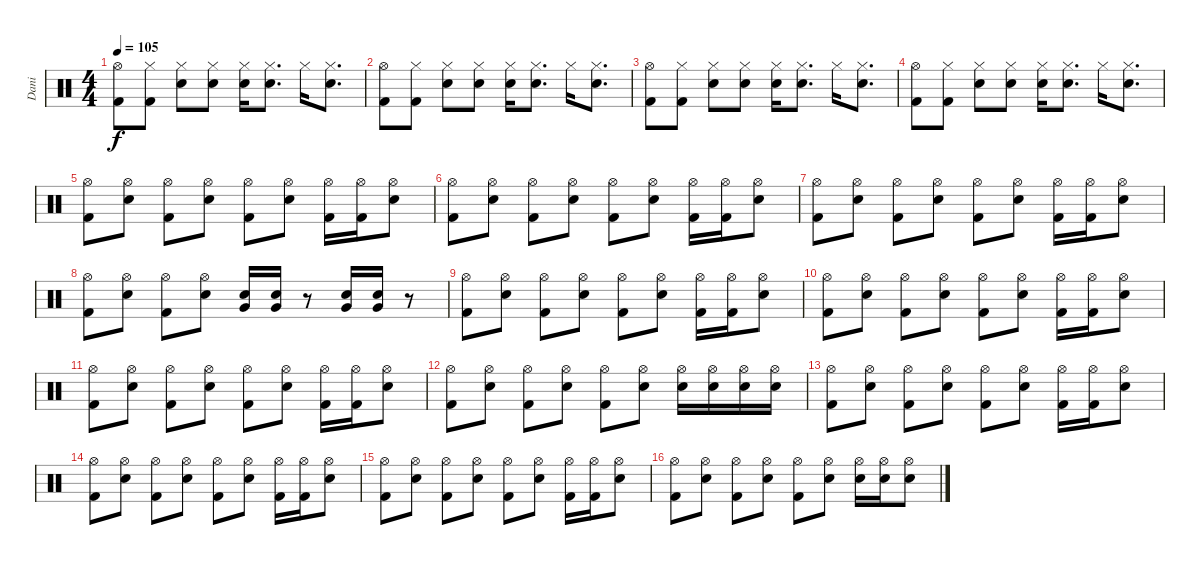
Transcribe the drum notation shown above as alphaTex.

\track ("Dani" "Dani") {instrument percussion}
\staff {score}
\articulation defaults
\ts (4 4)
\tempo 105
\clef neutral
\ks c
("Kick (hit) 2" "Hi-Hat (open)").8{dy f} ("Kick (hit) 2" "Hi-Hat (closed)").8 ("Snare (hit) 2" "Hi-Hat (closed)").8 ("Snare (hit) 2" "Hi-Hat (closed)").8 ("Snare (hit) 2" "Hi-Hat (closed)").16 ("Snare (hit) 2" "Hi-Hat (closed)").8{d} "Hi-Hat (closed)".16 ("Snare (hit) 2" "Hi-Hat (closed)").8{d} |
("Kick (hit) 2" "Hi-Hat (open)").8 ("Kick (hit) 2" "Hi-Hat (closed)").8 ("Snare (hit) 2" "Hi-Hat (closed)").8 ("Snare (hit) 2" "Hi-Hat (closed)").8 ("Snare (hit) 2" "Hi-Hat (closed)").16 ("Snare (hit) 2" "Hi-Hat (closed)").8{d} "Hi-Hat (closed)".16 ("Snare (hit) 2" "Hi-Hat (closed)").8{d} |
("Kick (hit) 2" "Hi-Hat (open)").8 ("Kick (hit) 2" "Hi-Hat (closed)").8 ("Snare (hit) 2" "Hi-Hat (closed)").8 ("Snare (hit) 2" "Hi-Hat (closed)").8 ("Snare (hit) 2" "Hi-Hat (closed)").16 ("Snare (hit) 2" "Hi-Hat (closed)").8{d} "Hi-Hat (closed)".16 ("Snare (hit) 2" "Hi-Hat (closed)").8{d} |
("Kick (hit) 2" "Hi-Hat (open)").8 ("Kick (hit) 2" "Hi-Hat (closed)").8 ("Snare (hit) 2" "Hi-Hat (closed)").8 ("Snare (hit) 2" "Hi-Hat (closed)").8 ("Snare (hit) 2" "Hi-Hat (closed)").16 ("Snare (hit) 2" "Hi-Hat (closed)").8{d} "Hi-Hat (closed)".16 ("Snare (hit) 2" "Hi-Hat (closed)").8{d} |
("Kick (hit) 2" "Hi-Hat (open)").8 ("Snare (hit) 2" "Hi-Hat (open)").8 ("Kick (hit) 2" "Hi-Hat (open)").8 ("Snare (hit) 2" "Hi-Hat (open)").8 ("Kick (hit) 2" "Hi-Hat (open)").8 ("Snare (hit) 2" "Hi-Hat (open)").8 ("Kick (hit) 2" "Hi-Hat (open)").16 ("Kick (hit) 2" "Hi-Hat (open)").16 ("Snare (hit) 2" "Hi-Hat (open)").8 |
("Kick (hit) 2" "Hi-Hat (open)").8 ("Snare (hit) 2" "Hi-Hat (open)").8 ("Kick (hit) 2" "Hi-Hat (open)").8 ("Snare (hit) 2" "Hi-Hat (open)").8 ("Kick (hit) 2" "Hi-Hat (open)").8 ("Snare (hit) 2" "Hi-Hat (open)").8 ("Kick (hit) 2" "Hi-Hat (open)").16 ("Kick (hit) 2" "Hi-Hat (open)").16 ("Snare (hit) 2" "Hi-Hat (open)").8 |
("Kick (hit) 2" "Hi-Hat (open)").8 ("Snare (hit) 2" "Hi-Hat (open)").8 ("Kick (hit) 2" "Hi-Hat (open)").8 ("Snare (hit) 2" "Hi-Hat (open)").8 ("Kick (hit) 2" "Hi-Hat (open)").8 ("Snare (hit) 2" "Hi-Hat (open)").8 ("Kick (hit) 2" "Hi-Hat (open)").16 ("Kick (hit) 2" "Hi-Hat (open)").16 ("Snare (hit) 2" "Hi-Hat (open)").8 |
("Kick (hit) 2" "Hi-Hat (open)").8 ("Snare (hit) 2" "Hi-Hat (open)").8 ("Kick (hit) 2" "Hi-Hat (open)").8 ("Snare (hit) 2" "Hi-Hat (open)").8 ("Snare (hit) 2" "Very Low Tom (hit)").16{volume 16} ("Snare (hit) 2" "Very Low Tom (hit)").16 r.8 ("Snare (hit) 2" "Very Low Tom (hit)").16 ("Snare (hit) 2" "Very Low Tom (hit)").16 r.8 |
("Kick (hit) 2" "Hi-Hat (open)").8{volume 13} ("Snare (hit) 2" "Hi-Hat (open)").8 ("Kick (hit) 2" "Hi-Hat (open)").8 ("Snare (hit) 2" "Hi-Hat (open)").8 ("Kick (hit) 2" "Hi-Hat (open)").8 ("Snare (hit) 2" "Hi-Hat (open)").8 ("Kick (hit) 2" "Hi-Hat (open)").16 ("Kick (hit) 2" "Hi-Hat (open)").16 ("Snare (hit) 2" "Hi-Hat (open)").8 |
("Kick (hit) 2" "Hi-Hat (open)").8 ("Snare (hit) 2" "Hi-Hat (open)").8 ("Kick (hit) 2" "Hi-Hat (open)").8 ("Snare (hit) 2" "Hi-Hat (open)").8 ("Kick (hit) 2" "Hi-Hat (open)").8 ("Snare (hit) 2" "Hi-Hat (open)").8 ("Kick (hit) 2" "Hi-Hat (open)").16 ("Kick (hit) 2" "Hi-Hat (open)").16 ("Snare (hit) 2" "Hi-Hat (open)").8 |
("Kick (hit) 2" "Hi-Hat (open)").8 ("Snare (hit) 2" "Hi-Hat (open)").8 ("Kick (hit) 2" "Hi-Hat (open)").8 ("Snare (hit) 2" "Hi-Hat (open)").8 ("Kick (hit) 2" "Hi-Hat (open)").8 ("Snare (hit) 2" "Hi-Hat (open)").8 ("Kick (hit) 2" "Hi-Hat (open)").16 ("Kick (hit) 2" "Hi-Hat (open)").16 ("Snare (hit) 2" "Hi-Hat (open)").8 |
("Kick (hit) 2" "Hi-Hat (open)").8 ("Snare (hit) 2" "Hi-Hat (open)").8 ("Kick (hit) 2" "Hi-Hat (open)").8 ("Snare (hit) 2" "Hi-Hat (open)").8 ("Kick (hit) 2" "Hi-Hat (open)").8 ("Snare (hit) 2" "Hi-Hat (open)").8 ("Snare (hit) 2" "Hi-Hat (open)").16 ("Snare (hit) 2" "Hi-Hat (open)").16 ("Snare (hit) 2" "Hi-Hat (open)").16 ("Snare (hit) 2" "Hi-Hat (open)").16 |
("Kick (hit) 2" "Hi-Hat (open)").8 ("Snare (hit) 2" "Hi-Hat (open)").8 ("Kick (hit) 2" "Hi-Hat (open)").8 ("Snare (hit) 2" "Hi-Hat (open)").8 ("Kick (hit) 2" "Hi-Hat (open)").8 ("Snare (hit) 2" "Hi-Hat (open)").8 ("Kick (hit) 2" "Hi-Hat (open)").16 ("Kick (hit) 2" "Hi-Hat (open)").16 ("Snare (hit) 2" "Hi-Hat (open)").8 |
("Kick (hit) 2" "Hi-Hat (open)").8 ("Snare (hit) 2" "Hi-Hat (open)").8 ("Kick (hit) 2" "Hi-Hat (open)").8 ("Snare (hit) 2" "Hi-Hat (open)").8 ("Kick (hit) 2" "Hi-Hat (open)").8 ("Snare (hit) 2" "Hi-Hat (open)").8 ("Kick (hit) 2" "Hi-Hat (open)").16 ("Kick (hit) 2" "Hi-Hat (open)").16 ("Snare (hit) 2" "Hi-Hat (open)").8 |
("Kick (hit) 2" "Hi-Hat (open)").8 ("Snare (hit) 2" "Hi-Hat (open)").8 ("Kick (hit) 2" "Hi-Hat (open)").8 ("Snare (hit) 2" "Hi-Hat (open)").8 ("Kick (hit) 2" "Hi-Hat (open)").8 ("Snare (hit) 2" "Hi-Hat (open)").8 ("Kick (hit) 2" "Hi-Hat (open)").16 ("Kick (hit) 2" "Hi-Hat (open)").16 ("Snare (hit) 2" "Hi-Hat (open)").8 |
("Kick (hit) 2" "Hi-Hat (open)").8 ("Snare (hit) 2" "Hi-Hat (open)").8 ("Kick (hit) 2" "Hi-Hat (open)").8 ("Snare (hit) 2" "Hi-Hat (open)").8 ("Kick (hit) 2" "Hi-Hat (open)").8 ("Snare (hit) 2" "Hi-Hat (open)").8 ("Snare (hit) 2" "Hi-Hat (open)").16 ("Snare (hit) 2" "Hi-Hat (open)").16 ("Snare (hit) 2" "Hi-Hat (open)").8
